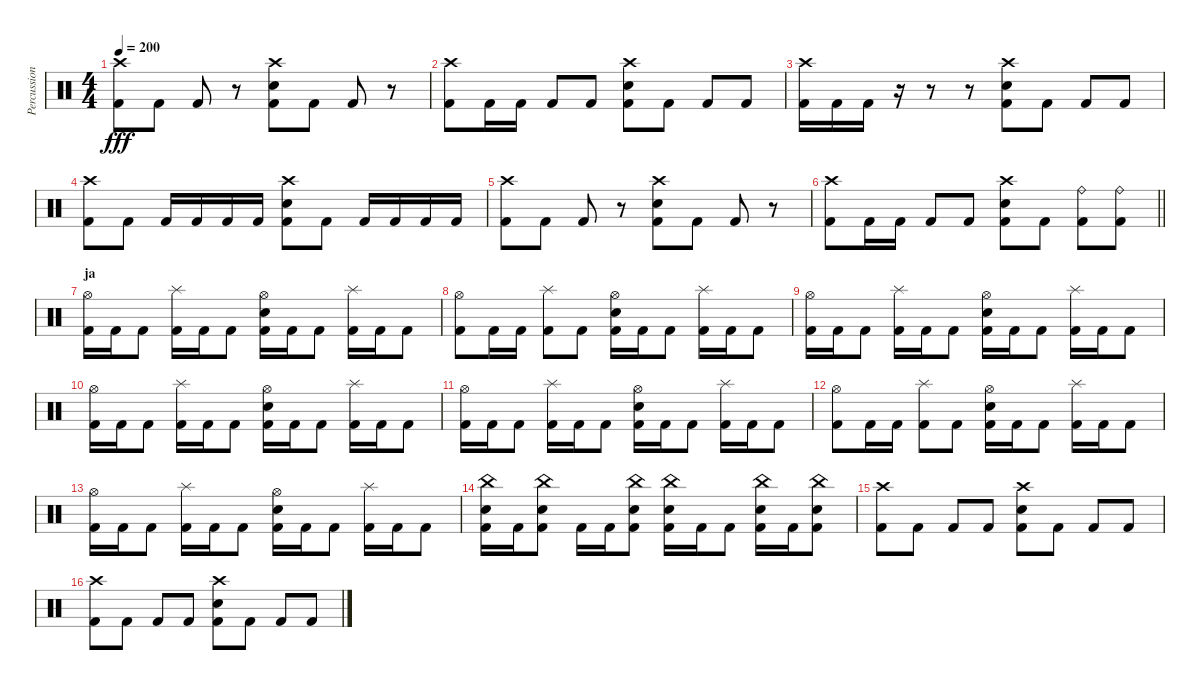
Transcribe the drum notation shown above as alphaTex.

\track ("Percussion" "Percussion") {instrument percussion}
\staff {score}
\articulation defaults
\ts (4 4)
\tempo 200
\clef neutral
\ks c
("Crash high (hit)" "Kick (hit) 2").8{dy fff} "Kick (hit) 2".8 "Kick (hit) 2".8 r.8 ("Crash high (hit)" "Snare (hit) 2" "Kick (hit) 2").8 "Kick (hit) 2".8 "Kick (hit) 2".8 r.8 |
("Crash high (hit)" "Kick (hit) 2").8 "Kick (hit) 2".16 "Kick (hit) 2".16 "Kick (hit) 2".8 "Kick (hit) 2".8 ("Crash high (hit)" "Snare (hit) 2" "Kick (hit) 2").8 "Kick (hit) 2".8 "Kick (hit) 2".8 "Kick (hit) 2".8 |
("Crash high (hit)" "Kick (hit) 2").16 "Kick (hit) 2".16 "Kick (hit) 2".16 r.16 r.8 r.8 ("Crash high (hit)" "Snare (hit) 2" "Kick (hit) 2").8 "Kick (hit) 2".8 "Kick (hit) 2".8 "Kick (hit) 2".8 |
("Crash high (hit)" "Kick (hit) 2").8 "Kick (hit) 2".8 "Kick (hit) 2".16 "Kick (hit) 2".16 "Kick (hit) 2".16 "Kick (hit) 2".16 ("Crash high (hit)" "Snare (hit) 2" "Kick (hit) 2").8 "Kick (hit) 2".8 "Kick (hit) 2".16 "Kick (hit) 2".16 "Kick (hit) 2".16 "Kick (hit) 2".16 |
("Crash high (hit)" "Kick (hit) 2").8 "Kick (hit) 2".8 "Kick (hit) 2".8 r.8 ("Crash high (hit)" "Snare (hit) 2" "Kick (hit) 2").8 "Kick (hit) 2".8 "Kick (hit) 2".8 r.8 |
\barLineRight lightlight
("Crash high (hit)" "Kick (hit) 2").8 "Kick (hit) 2".16 "Kick (hit) 2".16 "Kick (hit) 2".8 "Kick (hit) 2".8 ("Crash high (hit)" "Snare (hit) 2" "Kick (hit) 2").8 "Kick (hit) 2".8 ("Ride (bell)" "Kick (hit) 2").8 ("Ride (bell)" "Kick (hit) 2").8 |
\section ("" "ja")
("Hi-Hat (open)" "Kick (hit) 2").16 "Kick (hit) 2".16 "Kick (hit) 2".8 ("Splash (hit)" "Kick (hit) 2").16 "Kick (hit) 2".16 "Kick (hit) 2".8 ("Hi-Hat (open)" "Snare (hit) 2" "Kick (hit) 2").16 "Kick (hit) 2".16 "Kick (hit) 2".8 ("Splash (hit)" "Kick (hit) 2").16 "Kick (hit) 2".16 "Kick (hit) 2".8 |
("Hi-Hat (open)" "Kick (hit) 2").8 "Kick (hit) 2".16 "Kick (hit) 2".16 ("Splash (hit)" "Kick (hit) 2").8 "Kick (hit) 2".8 ("Hi-Hat (open)" "Snare (hit) 2" "Kick (hit) 2").16 "Kick (hit) 2".16 "Kick (hit) 2".8 ("Splash (hit)" "Kick (hit) 2").16 "Kick (hit) 2".16 "Kick (hit) 2".8 |
("Hi-Hat (open)" "Kick (hit) 2").16 "Kick (hit) 2".16 "Kick (hit) 2".8 ("Splash (hit)" "Kick (hit) 2").16 "Kick (hit) 2".16 "Kick (hit) 2".8 ("Hi-Hat (open)" "Snare (hit) 2" "Kick (hit) 2").16 "Kick (hit) 2".16 "Kick (hit) 2".8 ("Splash (hit)" "Kick (hit) 2").16 "Kick (hit) 2".16 "Kick (hit) 2".8 |
("Hi-Hat (open)" "Kick (hit) 2").16 "Kick (hit) 2".16 "Kick (hit) 2".8 ("Splash (hit)" "Kick (hit) 2").16 "Kick (hit) 2".16 "Kick (hit) 2".8 ("Hi-Hat (open)" "Snare (hit) 2" "Kick (hit) 2").16 "Kick (hit) 2".16 "Kick (hit) 2".8 ("Splash (hit)" "Kick (hit) 2").16 "Kick (hit) 2".16 "Kick (hit) 2".8 |
("Hi-Hat (open)" "Kick (hit) 2").16 "Kick (hit) 2".16 "Kick (hit) 2".8 ("Splash (hit)" "Kick (hit) 2").16 "Kick (hit) 2".16 "Kick (hit) 2".8 ("Hi-Hat (open)" "Snare (hit) 2" "Kick (hit) 2").16 "Kick (hit) 2".16 "Kick (hit) 2".8 ("Splash (hit)" "Kick (hit) 2").16 "Kick (hit) 2".16 "Kick (hit) 2".8 |
("Hi-Hat (open)" "Kick (hit) 2").8 "Kick (hit) 2".16 "Kick (hit) 2".16 ("Splash (hit)" "Kick (hit) 2").8 "Kick (hit) 2".8 ("Hi-Hat (open)" "Snare (hit) 2" "Kick (hit) 2").16 "Kick (hit) 2".16 "Kick (hit) 2".8 ("Splash (hit)" "Kick (hit) 2").16 "Kick (hit) 2".16 "Kick (hit) 2".8 |
("Hi-Hat (open)" "Kick (hit) 2").16 "Kick (hit) 2".16 "Kick (hit) 2".8 ("Splash (hit)" "Kick (hit) 2").16 "Kick (hit) 2".16 "Kick (hit) 2".8 ("Hi-Hat (open)" "Snare (hit) 2" "Kick (hit) 2").16 "Kick (hit) 2".16 "Kick (hit) 2".8 ("Splash (hit)" "Kick (hit) 2").16 "Kick (hit) 2".16 "Kick (hit) 2".8 |
("China (hit)" "Snare (hit) 2" "Kick (hit) 2").16 "Kick (hit) 2".16 ("China (hit)" "Snare (hit) 2" "Kick (hit) 2").8 "Kick (hit) 2".16 "Kick (hit) 2".16 ("China (hit)" "Snare (hit) 2" "Kick (hit) 2").8 ("China (hit)" "Snare (hit) 2" "Kick (hit) 2").16 "Kick (hit) 2".16 "Kick (hit) 2".8 ("China (hit)" "Snare (hit) 2" "Kick (hit) 2").16 "Kick (hit) 2".16 ("China (hit)" "Snare (hit) 2" "Kick (hit) 2").8 |
("Crash high (hit)" "Kick (hit) 2").8 "Kick (hit) 2".8 "Kick (hit) 2".8 "Kick (hit) 2".8 ("Crash high (hit)" "Snare (hit) 2" "Kick (hit) 2").8 "Kick (hit) 2".8 "Kick (hit) 2".8 "Kick (hit) 2".8 |
("Crash high (hit)" "Kick (hit) 2").8 "Kick (hit) 2".8 "Kick (hit) 2".8 "Kick (hit) 2".8 ("Crash high (hit)" "Snare (hit) 2" "Kick (hit) 2").8 "Kick (hit) 2".8 "Kick (hit) 2".8 "Kick (hit) 2".8
